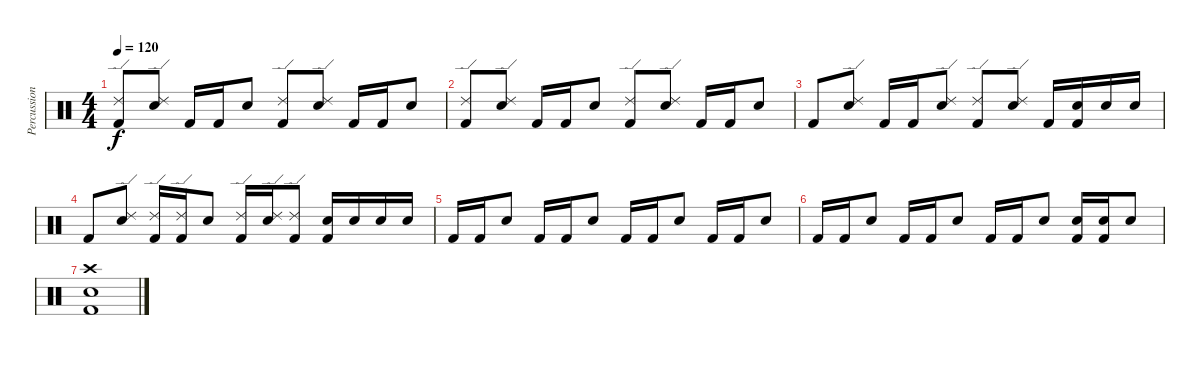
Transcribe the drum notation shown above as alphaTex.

\track ("Percussion" "Percussion") {instrument percussion}
\staff {score}
\articulation defaults
\ts (4 4)
\tempo 120
\clef neutral
\ks c
("Kick (hit) 2" "Ride (edge) 2").8{dy f} ("Snare (hit) 2" "Ride (edge) 2").8 "Kick (hit) 2".16 "Kick (hit) 2".16 "Snare (hit) 2".8 ("Kick (hit) 2" "Ride (edge) 2").8 ("Snare (hit) 2" "Ride (edge) 2").8 "Kick (hit) 2".16 "Kick (hit) 2".16 "Snare (hit) 2".8 |
("Kick (hit) 2" "Ride (edge) 2").8 ("Snare (hit) 2" "Ride (edge) 2").8 "Kick (hit) 2".16 "Kick (hit) 2".16 "Snare (hit) 2".8 ("Kick (hit) 2" "Ride (edge) 2").8 ("Snare (hit) 2" "Ride (edge) 2").8 "Kick (hit) 2".16 "Kick (hit) 2".16 "Snare (hit) 2".8 |
"Kick (hit) 2".8 ("Snare (hit) 2" "Ride (edge) 2").8 "Kick (hit) 2".16 "Kick (hit) 2".16 ("Snare (hit) 2" "Ride (edge) 2").8 ("Kick (hit) 2" "Ride (edge) 2").8 ("Snare (hit) 2" "Ride (edge) 2").8 "Kick (hit) 2".16 ("Kick (hit) 2" "Snare (hit) 2").16 "Snare (hit) 2".16 "Snare (hit) 2".16 |
"Kick (hit) 2".8 ("Snare (hit) 2" "Ride (edge) 2").8 ("Kick (hit) 2" "Ride (edge) 2").16 ("Kick (hit) 2" "Ride (edge) 2").16 "Snare (hit) 2".8 ("Kick (hit) 2" "Ride (edge) 2").16 ("Snare (hit) 2" "Ride (edge) 2").16 ("Kick (hit) 2" "Ride (edge) 2").8 ("Kick (hit) 2" "Snare (hit) 2").16 "Snare (hit) 2".16 "Snare (hit) 2".16 "Snare (hit) 2".16 |
"Kick (hit) 2".16 "Kick (hit) 2".16 "Snare (hit) 2".8 "Kick (hit) 2".16 "Kick (hit) 2".16 "Snare (hit) 2".8 "Kick (hit) 2".16 "Kick (hit) 2".16 "Snare (hit) 2".8 "Kick (hit) 2".16 "Kick (hit) 2".16 "Snare (hit) 2".8 |
"Kick (hit) 2".16 "Kick (hit) 2".16 "Snare (hit) 2".8 "Kick (hit) 2".16 "Kick (hit) 2".16 "Snare (hit) 2".8 "Kick (hit) 2".16 "Kick (hit) 2".16 "Snare (hit) 2".8 ("Kick (hit) 2" "Snare (hit) 2").16 ("Kick (hit) 2" "Snare (hit) 2").16 "Snare (hit) 2".8 |
("Kick (hit) 2" "Snare (hit) 2" "Crash high (hit)").1
